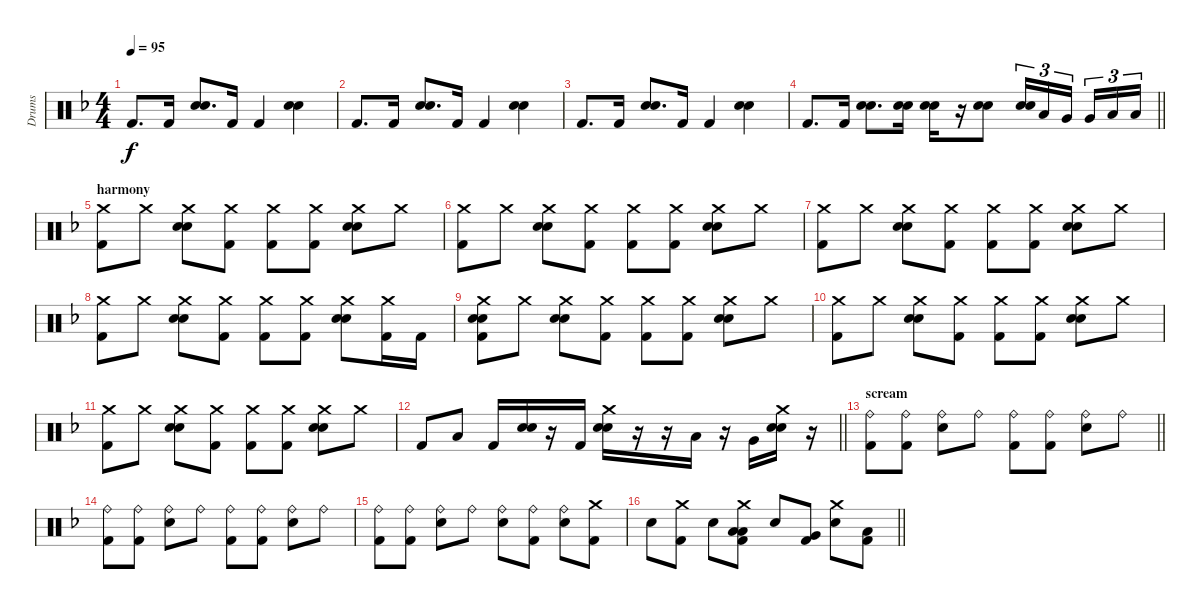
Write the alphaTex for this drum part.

\track ("Drums" "Drums") {instrument percussion}
\staff {score}
\articulation defaults
\ts (4 4)
\tempo 95
\clef neutral
\ks dminor "Kick (hit) 2".8{d dy f} "Kick (hit) 2".16
("Snare (hit) 2" "Electric Snare (hit)").8{d} "Kick (hit) 2".16 "Kick (hit) 2".4 ("Snare (hit) 2" "Electric Snare (hit)").4 |
"Kick (hit) 2".8{d} "Kick (hit) 2".16 ("Snare (hit) 2" "Electric Snare (hit)").8{d} "Kick (hit) 2".16 "Kick (hit) 2".4 ("Snare (hit) 2" "Electric Snare (hit)").4 |
"Kick (hit) 2".8{d} "Kick (hit) 2".16 ("Snare (hit) 2" "Electric Snare (hit)").8{d} "Kick (hit) 2".16 "Kick (hit) 2".4 ("Snare (hit) 2" "Electric Snare (hit)").4 |
\barLineRight lightlight "Kick (hit) 2".8{d} "Kick (hit) 2".16
("Snare (hit) 2" "Electric Snare (hit)").8{d} ("Snare (hit) 2" "Electric Snare (hit)").16 ("Snare (hit) 2" "Electric Snare (hit)").16 r.16 ("Snare (hit) 2" "Electric Snare (hit)").8 ("Snare (hit) 2" "Electric Snare (hit)").16{tu (3 2)} "Low Tom (hit)".16{tu (3 2)} "Very Low Tom (hit)".16{tu (3 2) beam splitsecondary} "Very Low Tom (hit)".16{tu (3 2)} "Low Floor Tom (hit)".16{tu (3 2)} "Low Floor Tom (hit)".16{tu (3 2)} |
\section ("" "harmony ")
("Crash medium (hit)" "Kick (hit) 2").8 "Crash medium (hit)".8 ("Crash medium (hit)" "Snare (hit) 2" "Electric Snare (hit)").8 ("Crash medium (hit)" "Kick (hit) 2").8 ("Crash medium (hit)" "Kick (hit) 2").8 ("Crash medium (hit)" "Kick (hit) 2").8 ("Crash medium (hit)" "Snare (hit) 2" "Electric Snare (hit)").8 "Crash medium (hit)".8 |
("Crash medium (hit)" "Kick (hit) 2").8 "Crash medium (hit)".8 ("Crash medium (hit)" "Snare (hit) 2" "Electric Snare (hit)").8 ("Crash medium (hit)" "Kick (hit) 2").8 ("Crash medium (hit)" "Kick (hit) 2").8 ("Crash medium (hit)" "Kick (hit) 2").8 ("Crash medium (hit)" "Snare (hit) 2" "Electric Snare (hit)").8 "Crash medium (hit)".8 |
("Crash medium (hit)" "Kick (hit) 2").8 "Crash medium (hit)".8 ("Crash medium (hit)" "Snare (hit) 2" "Electric Snare (hit)").8 ("Crash medium (hit)" "Kick (hit) 2").8 ("Crash medium (hit)" "Kick (hit) 2").8 ("Crash medium (hit)" "Kick (hit) 2").8 ("Crash medium (hit)" "Snare (hit) 2" "Electric Snare (hit)").8 "Crash medium (hit)".8 |
("Crash medium (hit)" "Kick (hit) 2").8 "Crash medium (hit)".8 ("Crash medium (hit)" "Snare (hit) 2" "Electric Snare (hit)").8 ("Crash medium (hit)" "Kick (hit) 2").8 ("Crash medium (hit)" "Kick (hit) 2").8 ("Crash medium (hit)" "Kick (hit) 2").8 ("Crash medium (hit)" "Snare (hit) 2" "Electric Snare (hit)").8 ("Crash medium (hit)" "Kick (hit) 2").16 "Kick (hit) 2".16 |
("Crash medium (hit)" "Snare (hit) 2" "Electric Snare (hit)" "Kick (hit) 2").8 "Crash medium (hit)".8 ("Crash medium (hit)" "Snare (hit) 2" "Electric Snare (hit)").8 ("Crash medium (hit)" "Kick (hit) 2").8 ("Crash medium (hit)" "Kick (hit) 2").8 ("Crash medium (hit)" "Kick (hit) 2").8 ("Crash medium (hit)" "Snare (hit) 2" "Electric Snare (hit)").8 "Crash medium (hit)".8 |
("Crash medium (hit)" "Kick (hit) 2").8 "Crash medium (hit)".8 ("Crash medium (hit)" "Snare (hit) 2" "Electric Snare (hit)").8 ("Crash medium (hit)" "Kick (hit) 2").8 ("Crash medium (hit)" "Kick (hit) 2").8 ("Crash medium (hit)" "Kick (hit) 2").8 ("Crash medium (hit)" "Snare (hit) 2" "Electric Snare (hit)").8 "Crash medium (hit)".8 |
("Crash medium (hit)" "Kick (hit) 2").8 "Crash medium (hit)".8 ("Crash medium (hit)" "Snare (hit) 2" "Electric Snare (hit)").8 ("Crash medium (hit)" "Kick (hit) 2").8 ("Crash medium (hit)" "Kick (hit) 2").8 ("Crash medium (hit)" "Kick (hit) 2").8 ("Crash medium (hit)" "Snare (hit) 2" "Electric Snare (hit)").8 "Crash medium (hit)".8 |
\barLineRight lightlight "Kick (hit) 2".8 "Low Floor Tom (hit)".8 "Kick (hit) 2".16
("Snare (hit) 2" "Electric Snare (hit)").16 r.16 "Kick (hit) 2".16 ("Crash medium (hit)" "Snare (hit) 2" "Electric Snare (hit)").16 r.16 r.16 "Low Tom (hit)".16 r.16 "Very Low Tom (hit)".16 ("Crash medium (hit)" "Snare (hit) 2" "Electric Snare (hit)").16 r.16 |
\section ("" "scream")
\barLineRight lightlight
("Ride (bell)" "Kick (hit) 2").8 ("Ride (bell)" "Kick (hit) 2").8 ("Ride (bell)" "Electric Snare (hit)").8 "Ride (bell)".8 ("Ride (bell)" "Kick (hit) 2").8 ("Ride (bell)" "Kick (hit) 2").8 ("Ride (bell)" "Electric Snare (hit)").8 "Ride (bell)".8 |
("Ride (bell)" "Kick (hit) 2").8 ("Ride (bell)" "Kick (hit) 2").8 ("Ride (bell)" "Electric Snare (hit)").8 "Ride (bell)".8 ("Ride (bell)" "Kick (hit) 2").8 ("Ride (bell)" "Kick (hit) 2").8 ("Ride (bell)" "Electric Snare (hit)").8 "Ride (bell)".8 |
("Ride (bell)" "Kick (hit) 2").8 ("Ride (bell)" "Kick (hit) 2").8 ("Ride (bell)" "Electric Snare (hit)").8 "Ride (bell)".8 ("Ride (bell)" "Electric Snare (hit)").8 ("Ride (bell)" "Kick (hit) 2").8 ("Ride (bell)" "Electric Snare (hit)").8 ("Crash medium (hit)" "Kick (hit) 2").8 |
\barLineRight lightlight "Electric Snare (hit)".8
("Crash medium (hit)" "Kick (hit) 2").8 "Electric Snare (hit)".8 ("Crash medium (hit)" "Low Tom (hit)" "Low Tom (hit)" "Kick (hit) 2").8 "Electric Snare (hit)".8 ("Very Low Tom (hit)" "Kick (hit) 2").8 ("Crash medium (hit)" "Electric Snare (hit)").8 ("Low Floor Tom (hit)" "Kick (hit) 2").8
